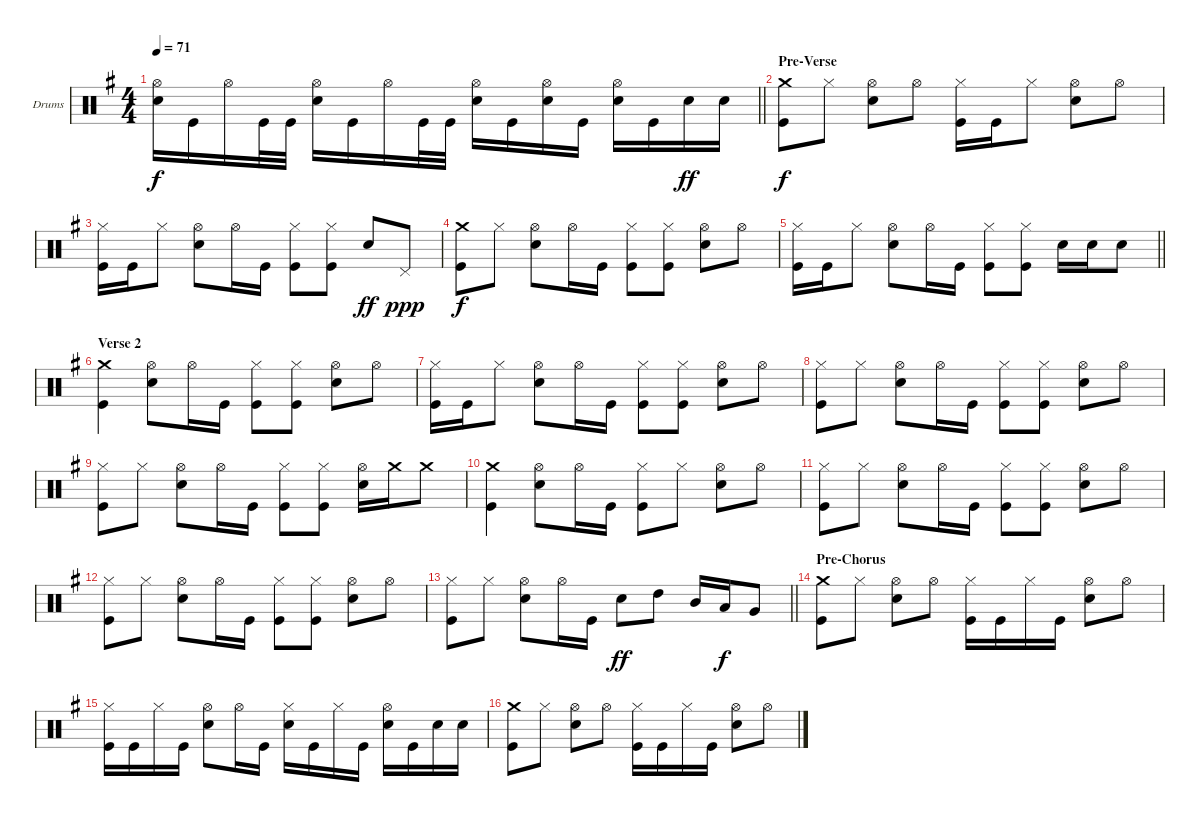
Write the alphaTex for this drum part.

\bracketExtendMode groupsimilarinstruments
\firstSystemTrackNameOrientation horizontal
\otherSystemsTrackNameOrientation horizontal
\track ("Барабаны" "Drums") {instrument percussion}
\staff {score}
\articulation defaults
\ts (4 4)
\tempo 71
\clef neutral
\barLineRight lightlight
\ks eminor
("Snare (hit) 2" "Hi-Hat (open)").16{dy f} "Kick (hit)".16 "Hi-Hat (open)".16 "Kick (hit)".32 "Kick (hit)".32 ("Snare (hit) 2" "Hi-Hat (open)").16 "Kick (hit)".16 "Hi-Hat (open)".16 "Kick (hit)".32 "Kick (hit)".32 ("Snare (hit) 2" "Hi-Hat (open)").16 "Kick (hit)".16 ("Snare (hit) 2" "Hi-Hat (open)").16 "Kick (hit)".16 ("Snare (hit) 2" "Hi-Hat (open)").16 "Kick (hit)".16 "Snare (hit) 2".16{dy ff} "Snare (hit) 2".16 |
\section ("" "Pre-Verse")
("Kick (hit)" "Crash medium (hit)").8{dy f} "Hi-Hat (closed)".8 ("Hi-Hat (open)" "Snare (hit) 2").8 "Hi-Hat (open)".8 ("Kick (hit)" "Hi-Hat (closed)").16 "Kick (hit)".16 "Hi-Hat (closed)".8 ("Snare (hit) 2" "Hi-Hat (open)").8 "Hi-Hat (open)".8 |
("Kick (hit)" "Hi-Hat (closed)").16 "Kick (hit)".16 "Hi-Hat (closed)".8 ("Snare (hit) 2" "Hi-Hat (open)").8 "Hi-Hat (open)".16 "Kick (hit)".16 ("Kick (hit)" "Hi-Hat (closed)").8 ("Kick (hit)" "Hi-Hat (closed)").8 "Snare (hit) 2".8{dy ff} "Pedal Hi-Hat (hit)".8{dy ppp} |
("Kick (hit)" "Crash medium (hit)").8{dy f} "Hi-Hat (closed)".8 ("Hi-Hat (open)" "Snare (hit) 2").8 "Hi-Hat (open)".16 "Kick (hit)".16 ("Kick (hit)" "Hi-Hat (closed)").8 ("Hi-Hat (closed)" "Kick (hit)").8 ("Snare (hit) 2" "Hi-Hat (open)").8 "Hi-Hat (open)".8 |
\barLineRight lightlight
("Kick (hit)" "Hi-Hat (closed)").16 "Kick (hit)".16 "Hi-Hat (closed)".8 ("Snare (hit) 2" "Hi-Hat (open)").8 "Hi-Hat (open)".16 "Kick (hit)".16 ("Kick (hit)" "Hi-Hat (closed)").8 ("Kick (hit)" "Hi-Hat (closed)").8 "Snare (hit) 2".16 "Snare (hit) 2".16 "Snare (hit) 2".8 |
\section ("" "Verse 2")
("Kick (hit)" "Crash medium (hit)").4 ("Snare (hit) 2" "Hi-Hat (open)").8 "Hi-Hat (open)".16 "Kick (hit)".16 ("Kick (hit)" "Hi-Hat (closed)").8 ("Hi-Hat (closed)" "Kick (hit)").8 ("Snare (hit) 2" "Hi-Hat (open)").8 "Hi-Hat (open)".8 |
("Hi-Hat (closed)" "Kick (hit)").16 "Kick (hit)".16 "Hi-Hat (closed)".8 ("Snare (hit) 2" "Hi-Hat (open)").8 "Hi-Hat (open)".16 "Kick (hit)".16 ("Kick (hit)" "Hi-Hat (closed)").8 ("Kick (hit)" "Hi-Hat (closed)").8 ("Snare (hit) 2" "Hi-Hat (open)").8 "Hi-Hat (open)".8 |
("Hi-Hat (closed)" "Kick (hit)").8 "Hi-Hat (closed)".8 ("Snare (hit) 2" "Hi-Hat (open)").8 "Hi-Hat (open)".16 "Kick (hit)".16 ("Kick (hit)" "Hi-Hat (closed)").8 ("Kick (hit)" "Hi-Hat (closed)").8 ("Snare (hit) 2" "Hi-Hat (open)").8 "Hi-Hat (open)".8 |
("Hi-Hat (closed)" "Kick (hit)").8 "Hi-Hat (closed)".8 ("Snare (hit) 2" "Hi-Hat (open)").8 "Hi-Hat (open)".16 "Kick (hit)".16 ("Kick (hit)" "Hi-Hat (closed)").8 ("Kick (hit)" "Hi-Hat (closed)").8 ("Snare (hit) 2" "Hi-Hat (open)").16 "Crash medium (hit)".16 "Crash medium (hit)".8 |
("Kick (hit)" "Crash medium (hit)").4 ("Snare (hit) 2" "Hi-Hat (open)").8 "Hi-Hat (open)".16 "Kick (hit)".16 ("Kick (hit)" "Hi-Hat (closed)").8 "Hi-Hat (closed)".8 ("Snare (hit) 2" "Hi-Hat (open)").8 "Hi-Hat (open)".8 |
("Hi-Hat (closed)" "Kick (hit)").8 "Hi-Hat (closed)".8 ("Snare (hit) 2" "Hi-Hat (open)").8 "Hi-Hat (open)".16 "Kick (hit)".16 ("Kick (hit)" "Hi-Hat (closed)").8 ("Kick (hit)" "Hi-Hat (closed)").8 ("Snare (hit) 2" "Hi-Hat (open)").8 "Hi-Hat (open)".8 |
("Hi-Hat (closed)" "Kick (hit)").8 "Hi-Hat (closed)".8 ("Snare (hit) 2" "Hi-Hat (open)").8 "Hi-Hat (open)".16 "Kick (hit)".16 ("Kick (hit)" "Hi-Hat (closed)").8 ("Kick (hit)" "Hi-Hat (closed)").8 ("Snare (hit) 2" "Hi-Hat (open)").8 "Hi-Hat (open)".8 |
\barLineRight lightlight
("Hi-Hat (closed)" "Kick (hit)").8 "Hi-Hat (closed)".8 ("Snare (hit) 2" "Hi-Hat (open)").8 "Hi-Hat (open)".16 "Kick (hit)".16 "Snare (hit) 2".8{dy ff} "High Tom (hit)".8 "Mid Tom (hit)".16 "Low Tom (hit)".16{dy f} "Very Low Tom (hit)".8 |
\section ("" "Pre-Chorus")
("Kick (hit)" "Crash medium (hit)").8 "Hi-Hat (closed)".8 ("Snare (hit) 2" "Hi-Hat (open)").8 "Hi-Hat (open)".8 ("Kick (hit)" "Hi-Hat (closed)").16 "Kick (hit)".16 "Hi-Hat (closed)".16 "Kick (hit)".16 ("Snare (hit) 2" "Hi-Hat (open)").8 "Hi-Hat (open)".8 |
("Kick (hit)" "Hi-Hat (closed)").16 "Kick (hit)".16 "Hi-Hat (closed)".16 "Kick (hit)".16 ("Snare (hit) 2" "Hi-Hat (open)").8 "Hi-Hat (open)".16 "Kick (hit)".16 ("Snare (hit) 2" "Hi-Hat (closed)").16 "Kick (hit)".16 "Hi-Hat (closed)".16 "Kick (hit)".16 ("Snare (hit) 2" "Hi-Hat (open)").16 "Kick (hit)".16 "Snare (hit) 2".16 "Snare (hit) 2".16 |
("Kick (hit)" "Crash medium (hit)").8 "Hi-Hat (closed)".8 ("Snare (hit) 2" "Hi-Hat (open)").8 "Hi-Hat (open)".8 ("Kick (hit)" "Hi-Hat (closed)").16 "Kick (hit)".16 "Hi-Hat (closed)".16 "Kick (hit)".16 ("Snare (hit) 2" "Hi-Hat (open)").8 "Hi-Hat (open)".8
